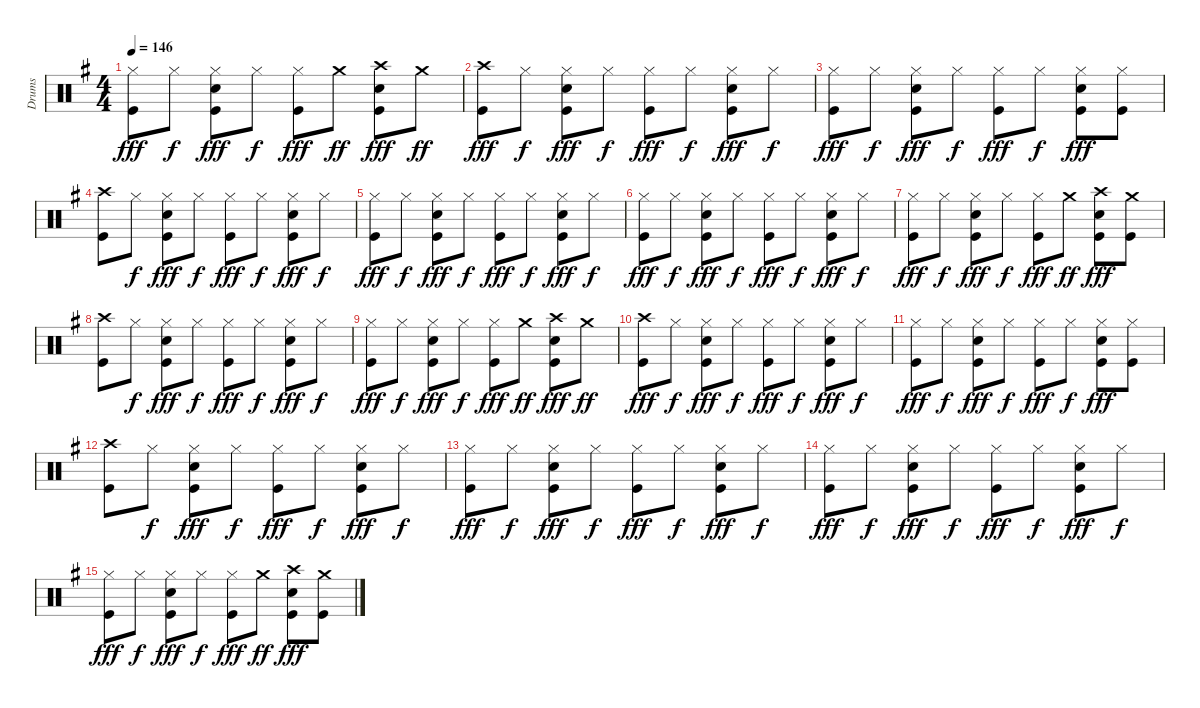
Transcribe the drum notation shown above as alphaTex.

\track ("Drums" "Drums") {instrument percussion}
\staff {score}
\articulation defaults
\ts (4 4)
\tempo 146
\clef neutral
\ks g
("Hi-Hat (closed)" "Kick (hit)").8{dy fff} "Hi-Hat (closed)".8{dy f} ("Hi-Hat (closed)" "Snare (hit) 2" "Kick (hit)").8{dy fff} "Hi-Hat (closed)".8{dy f} ("Hi-Hat (closed)" "Kick (hit)").8{dy fff} "Crash medium (hit)".8{dy ff} ("Crash high (hit)" "Snare (hit) 2" "Kick (hit)").8{dy fff} "Crash medium (hit)".8{dy ff} |
("Crash high (hit)" "Kick (hit)").8{dy fff} "Hi-Hat (closed)".8{dy f} ("Hi-Hat (closed)" "Snare (hit) 2" "Kick (hit)").8{dy fff} "Hi-Hat (closed)".8{dy f} ("Hi-Hat (closed)" "Kick (hit)").8{dy fff} "Hi-Hat (closed)".8{dy f} ("Hi-Hat (closed)" "Snare (hit) 2" "Kick (hit)").8{dy fff} "Hi-Hat (closed)".8{dy f} |
("Hi-Hat (closed)" "Kick (hit)").8{dy fff} "Hi-Hat (closed)".8{dy f} ("Hi-Hat (closed)" "Snare (hit) 2" "Kick (hit)").8{dy fff} "Hi-Hat (closed)".8{dy f} ("Hi-Hat (closed)" "Kick (hit)").8{dy fff} "Hi-Hat (closed)".8{dy f} ("Hi-Hat (closed)" "Snare (hit) 2" "Kick (hit)").8{dy fff} ("Hi-Hat (closed)" "Kick (hit)").8 |
("Crash high (hit)" "Kick (hit)").8 "Hi-Hat (closed)".8{dy f} ("Hi-Hat (closed)" "Snare (hit) 2" "Kick (hit)").8{dy fff} "Hi-Hat (closed)".8{dy f} ("Hi-Hat (closed)" "Kick (hit)").8{dy fff} "Hi-Hat (closed)".8{dy f} ("Hi-Hat (closed)" "Snare (hit) 2" "Kick (hit)").8{dy fff} "Hi-Hat (closed)".8{dy f} |
("Hi-Hat (closed)" "Kick (hit)").8{dy fff} "Hi-Hat (closed)".8{dy f} ("Hi-Hat (closed)" "Snare (hit) 2" "Kick (hit)").8{dy fff} "Hi-Hat (closed)".8{dy f} ("Hi-Hat (closed)" "Kick (hit)").8{dy fff} "Hi-Hat (closed)".8{dy f} ("Hi-Hat (closed)" "Snare (hit) 2" "Kick (hit)").8{dy fff} "Hi-Hat (closed)".8{dy f} |
("Hi-Hat (closed)" "Kick (hit)").8{dy fff} "Hi-Hat (closed)".8{dy f} ("Hi-Hat (closed)" "Snare (hit) 2" "Kick (hit)").8{dy fff} "Hi-Hat (closed)".8{dy f} ("Hi-Hat (closed)" "Kick (hit)").8{dy fff} "Hi-Hat (closed)".8{dy f} ("Hi-Hat (closed)" "Snare (hit) 2" "Kick (hit)").8{dy fff} "Hi-Hat (closed)".8{dy f} |
("Hi-Hat (closed)" "Kick (hit)").8{dy fff} "Hi-Hat (closed)".8{dy f} ("Hi-Hat (closed)" "Snare (hit) 2" "Kick (hit)").8{dy fff} "Hi-Hat (closed)".8{dy f} ("Hi-Hat (closed)" "Kick (hit)").8{dy fff} "Crash medium (hit)".8{dy ff} ("Crash high (hit)" "Snare (hit) 2" "Kick (hit)").8{dy fff} ("Crash medium (hit)" "Kick (hit)").8 |
("Crash high (hit)" "Kick (hit)").8 "Hi-Hat (closed)".8{dy f} ("Hi-Hat (closed)" "Snare (hit) 2" "Kick (hit)").8{dy fff} "Hi-Hat (closed)".8{dy f} ("Hi-Hat (closed)" "Kick (hit)").8{dy fff} "Hi-Hat (closed)".8{dy f} ("Hi-Hat (closed)" "Snare (hit) 2" "Kick (hit)").8{dy fff} "Hi-Hat (closed)".8{dy f} |
("Hi-Hat (closed)" "Kick (hit)").8{dy fff} "Hi-Hat (closed)".8{dy f} ("Hi-Hat (closed)" "Snare (hit) 2" "Kick (hit)").8{dy fff} "Hi-Hat (closed)".8{dy f} ("Hi-Hat (closed)" "Kick (hit)").8{dy fff} "Crash medium (hit)".8{dy ff} ("Crash high (hit)" "Snare (hit) 2" "Kick (hit)").8{dy fff} "Crash medium (hit)".8{dy ff} |
("Crash high (hit)" "Kick (hit)").8{dy fff} "Hi-Hat (closed)".8{dy f} ("Hi-Hat (closed)" "Snare (hit) 2" "Kick (hit)").8{dy fff} "Hi-Hat (closed)".8{dy f} ("Hi-Hat (closed)" "Kick (hit)").8{dy fff} "Hi-Hat (closed)".8{dy f} ("Hi-Hat (closed)" "Snare (hit) 2" "Kick (hit)").8{dy fff} "Hi-Hat (closed)".8{dy f} |
("Hi-Hat (closed)" "Kick (hit)").8{dy fff} "Hi-Hat (closed)".8{dy f} ("Hi-Hat (closed)" "Snare (hit) 2" "Kick (hit)").8{dy fff} "Hi-Hat (closed)".8{dy f} ("Hi-Hat (closed)" "Kick (hit)").8{dy fff} "Hi-Hat (closed)".8{dy f} ("Hi-Hat (closed)" "Snare (hit) 2" "Kick (hit)").8{dy fff} ("Hi-Hat (closed)" "Kick (hit)").8 |
("Crash high (hit)" "Kick (hit)").8 "Hi-Hat (closed)".8{dy f} ("Hi-Hat (closed)" "Snare (hit) 2" "Kick (hit)").8{dy fff} "Hi-Hat (closed)".8{dy f} ("Hi-Hat (closed)" "Kick (hit)").8{dy fff} "Hi-Hat (closed)".8{dy f} ("Hi-Hat (closed)" "Snare (hit) 2" "Kick (hit)").8{dy fff} "Hi-Hat (closed)".8{dy f} |
("Hi-Hat (closed)" "Kick (hit)").8{dy fff} "Hi-Hat (closed)".8{dy f} ("Hi-Hat (closed)" "Snare (hit) 2" "Kick (hit)").8{dy fff} "Hi-Hat (closed)".8{dy f} ("Hi-Hat (closed)" "Kick (hit)").8{dy fff} "Hi-Hat (closed)".8{dy f} ("Hi-Hat (closed)" "Snare (hit) 2" "Kick (hit)").8{dy fff} "Hi-Hat (closed)".8{dy f} |
("Hi-Hat (closed)" "Kick (hit)").8{dy fff} "Hi-Hat (closed)".8{dy f} ("Hi-Hat (closed)" "Snare (hit) 2" "Kick (hit)").8{dy fff} "Hi-Hat (closed)".8{dy f} ("Hi-Hat (closed)" "Kick (hit)").8{dy fff} "Hi-Hat (closed)".8{dy f} ("Hi-Hat (closed)" "Snare (hit) 2" "Kick (hit)").8{dy fff} "Hi-Hat (closed)".8{dy f} |
("Hi-Hat (closed)" "Kick (hit)").8{dy fff} "Hi-Hat (closed)".8{dy f} ("Hi-Hat (closed)" "Snare (hit) 2" "Kick (hit)").8{dy fff} "Hi-Hat (closed)".8{dy f} ("Hi-Hat (closed)" "Kick (hit)").8{dy fff} "Crash medium (hit)".8{dy ff} ("Crash high (hit)" "Snare (hit) 2" "Kick (hit)").8{dy fff} ("Crash medium (hit)" "Kick (hit)").8
